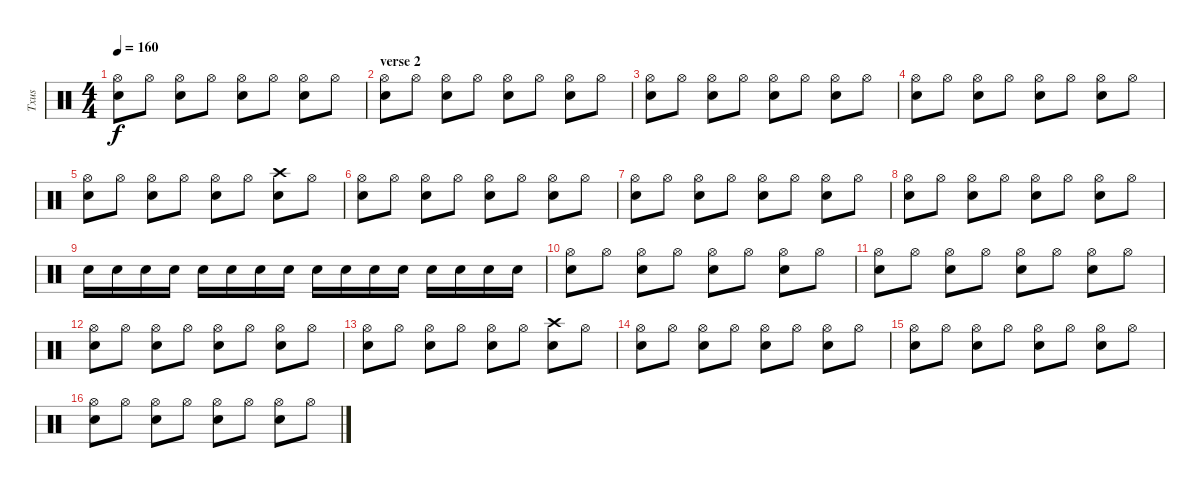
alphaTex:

\track ("Txus" "Txus") {instrument percussion}
\staff {score}
\articulation defaults
\ts (4 4)
\tempo 160
\clef neutral
\ks c
("Snare (hit) 2" "Hi-Hat (open)").8{dy f} "Hi-Hat (open)".8 ("Snare (hit) 2" "Hi-Hat (open)").8 "Hi-Hat (open)".8 ("Snare (hit) 2" "Hi-Hat (open)").8 "Hi-Hat (open)".8 ("Snare (hit) 2" "Hi-Hat (open)").8 "Hi-Hat (open)".8 |
\section ("" "verse 2")
("Snare (hit) 2" "Hi-Hat (open)").8 "Hi-Hat (open)".8 ("Snare (hit) 2" "Hi-Hat (open)").8 "Hi-Hat (open)".8 ("Snare (hit) 2" "Hi-Hat (open)").8 "Hi-Hat (open)".8 ("Snare (hit) 2" "Hi-Hat (open)").8 "Hi-Hat (open)".8 |
("Snare (hit) 2" "Hi-Hat (open)").8 "Hi-Hat (open)".8 ("Snare (hit) 2" "Hi-Hat (open)").8 "Hi-Hat (open)".8 ("Snare (hit) 2" "Hi-Hat (open)").8 "Hi-Hat (open)".8 ("Snare (hit) 2" "Hi-Hat (open)").8 "Hi-Hat (open)".8 |
("Snare (hit) 2" "Hi-Hat (open)").8 "Hi-Hat (open)".8 ("Snare (hit) 2" "Hi-Hat (open)").8 "Hi-Hat (open)".8 ("Snare (hit) 2" "Hi-Hat (open)").8 "Hi-Hat (open)".8 ("Snare (hit) 2" "Hi-Hat (open)").8 "Hi-Hat (open)".8 |
("Snare (hit) 2" "Hi-Hat (open)").8 "Hi-Hat (open)".8 ("Snare (hit) 2" "Hi-Hat (open)").8 "Hi-Hat (open)".8 ("Snare (hit) 2" "Hi-Hat (open)").8 "Hi-Hat (open)".8 ("Snare (hit) 2" "Crash high (hit)").8 "Hi-Hat (open)".8 |
("Snare (hit) 2" "Hi-Hat (open)").8 "Hi-Hat (open)".8 ("Snare (hit) 2" "Hi-Hat (open)").8 "Hi-Hat (open)".8 ("Snare (hit) 2" "Hi-Hat (open)").8 "Hi-Hat (open)".8 ("Snare (hit) 2" "Hi-Hat (open)").8 "Hi-Hat (open)".8 |
("Snare (hit) 2" "Hi-Hat (open)").8 "Hi-Hat (open)".8 ("Snare (hit) 2" "Hi-Hat (open)").8 "Hi-Hat (open)".8 ("Snare (hit) 2" "Hi-Hat (open)").8 "Hi-Hat (open)".8 ("Snare (hit) 2" "Hi-Hat (open)").8 "Hi-Hat (open)".8 |
("Snare (hit) 2" "Hi-Hat (open)").8 "Hi-Hat (open)".8 ("Snare (hit) 2" "Hi-Hat (open)").8 "Hi-Hat (open)".8 ("Snare (hit) 2" "Hi-Hat (open)").8 "Hi-Hat (open)".8 ("Snare (hit) 2" "Hi-Hat (open)").8 "Hi-Hat (open)".8 |
"Snare (hit) 2".16 "Snare (hit) 2".16 "Snare (hit) 2".16 "Snare (hit) 2".16 "Snare (hit) 2".16 "Snare (hit) 2".16 "Snare (hit) 2".16 "Snare (hit) 2".16 "Snare (hit) 2".16 "Snare (hit) 2".16 "Snare (hit) 2".16 "Snare (hit) 2".16 "Snare (hit) 2".16 "Snare (hit) 2".16 "Snare (hit) 2".16 "Snare (hit) 2".16 |
("Snare (hit) 2" "Hi-Hat (open)").8 "Hi-Hat (open)".8 ("Snare (hit) 2" "Hi-Hat (open)").8 "Hi-Hat (open)".8 ("Snare (hit) 2" "Hi-Hat (open)").8 "Hi-Hat (open)".8 ("Snare (hit) 2" "Hi-Hat (open)").8 "Hi-Hat (open)".8 |
("Snare (hit) 2" "Hi-Hat (open)").8 "Hi-Hat (open)".8 ("Snare (hit) 2" "Hi-Hat (open)").8 "Hi-Hat (open)".8 ("Snare (hit) 2" "Hi-Hat (open)").8 "Hi-Hat (open)".8 ("Snare (hit) 2" "Hi-Hat (open)").8 "Hi-Hat (open)".8 |
("Snare (hit) 2" "Hi-Hat (open)").8 "Hi-Hat (open)".8 ("Snare (hit) 2" "Hi-Hat (open)").8 "Hi-Hat (open)".8 ("Snare (hit) 2" "Hi-Hat (open)").8 "Hi-Hat (open)".8 ("Snare (hit) 2" "Hi-Hat (open)").8 "Hi-Hat (open)".8 |
("Snare (hit) 2" "Hi-Hat (open)").8 "Hi-Hat (open)".8 ("Snare (hit) 2" "Hi-Hat (open)").8 "Hi-Hat (open)".8 ("Snare (hit) 2" "Hi-Hat (open)").8 "Hi-Hat (open)".8 ("Snare (hit) 2" "Crash high (hit)").8 "Hi-Hat (open)".8 |
("Snare (hit) 2" "Hi-Hat (open)").8 "Hi-Hat (open)".8 ("Snare (hit) 2" "Hi-Hat (open)").8 "Hi-Hat (open)".8 ("Snare (hit) 2" "Hi-Hat (open)").8 "Hi-Hat (open)".8 ("Snare (hit) 2" "Hi-Hat (open)").8 "Hi-Hat (open)".8 |
("Snare (hit) 2" "Hi-Hat (open)").8 "Hi-Hat (open)".8 ("Snare (hit) 2" "Hi-Hat (open)").8 "Hi-Hat (open)".8 ("Snare (hit) 2" "Hi-Hat (open)").8 "Hi-Hat (open)".8 ("Snare (hit) 2" "Hi-Hat (open)").8 "Hi-Hat (open)".8 |
("Snare (hit) 2" "Hi-Hat (open)").8 "Hi-Hat (open)".8 ("Snare (hit) 2" "Hi-Hat (open)").8 "Hi-Hat (open)".8 ("Snare (hit) 2" "Hi-Hat (open)").8 "Hi-Hat (open)".8 ("Snare (hit) 2" "Hi-Hat (open)").8 "Hi-Hat (open)".8
